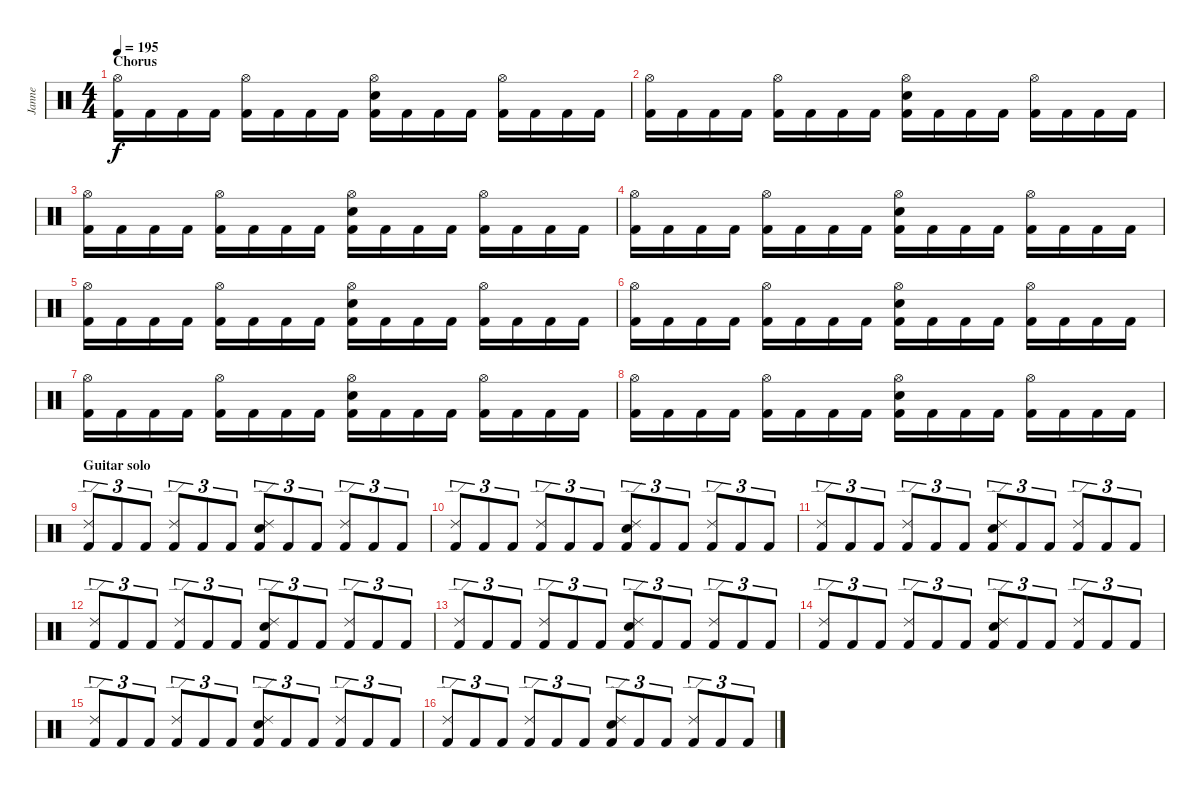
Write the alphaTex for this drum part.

\track ("Janne" "Janne") {instrument percussion}
\staff {score}
\articulation defaults
\ts (4 4)
\section ("" "Chorus")
\tempo 195
\clef neutral
\ks c
("Hi-Hat (open)" "Kick (hit) 2").16{dy f} "Kick (hit) 2".16 "Kick (hit) 2".16 "Kick (hit) 2".16 ("Hi-Hat (open)" "Kick (hit) 2").16 "Kick (hit) 2".16 "Kick (hit) 2".16 "Kick (hit) 2".16 ("Hi-Hat (open)" "Electric Snare (hit)" "Kick (hit) 2").16 "Kick (hit) 2".16 "Kick (hit) 2".16 "Kick (hit) 2".16 ("Hi-Hat (open)" "Kick (hit) 2").16 "Kick (hit) 2".16 "Kick (hit) 2".16 "Kick (hit) 2".16 |
("Hi-Hat (open)" "Kick (hit) 2").16 "Kick (hit) 2".16 "Kick (hit) 2".16 "Kick (hit) 2".16 ("Hi-Hat (open)" "Kick (hit) 2").16 "Kick (hit) 2".16 "Kick (hit) 2".16 "Kick (hit) 2".16 ("Hi-Hat (open)" "Electric Snare (hit)" "Kick (hit) 2").16 "Kick (hit) 2".16 "Kick (hit) 2".16 "Kick (hit) 2".16 ("Hi-Hat (open)" "Kick (hit) 2").16 "Kick (hit) 2".16 "Kick (hit) 2".16 "Kick (hit) 2".16 |
("Hi-Hat (open)" "Kick (hit) 2").16 "Kick (hit) 2".16 "Kick (hit) 2".16 "Kick (hit) 2".16 ("Hi-Hat (open)" "Kick (hit) 2").16 "Kick (hit) 2".16 "Kick (hit) 2".16 "Kick (hit) 2".16 ("Hi-Hat (open)" "Electric Snare (hit)" "Kick (hit) 2").16 "Kick (hit) 2".16 "Kick (hit) 2".16 "Kick (hit) 2".16 ("Hi-Hat (open)" "Kick (hit) 2").16 "Kick (hit) 2".16 "Kick (hit) 2".16 "Kick (hit) 2".16 |
("Hi-Hat (open)" "Kick (hit) 2").16 "Kick (hit) 2".16 "Kick (hit) 2".16 "Kick (hit) 2".16 ("Hi-Hat (open)" "Kick (hit) 2").16 "Kick (hit) 2".16 "Kick (hit) 2".16 "Kick (hit) 2".16 ("Hi-Hat (open)" "Electric Snare (hit)" "Kick (hit) 2").16 "Kick (hit) 2".16 "Kick (hit) 2".16 "Kick (hit) 2".16 ("Hi-Hat (open)" "Kick (hit) 2").16 "Kick (hit) 2".16 "Kick (hit) 2".16 "Kick (hit) 2".16 |
("Hi-Hat (open)" "Kick (hit) 2").16 "Kick (hit) 2".16 "Kick (hit) 2".16 "Kick (hit) 2".16 ("Hi-Hat (open)" "Kick (hit) 2").16 "Kick (hit) 2".16 "Kick (hit) 2".16 "Kick (hit) 2".16 ("Hi-Hat (open)" "Electric Snare (hit)" "Kick (hit) 2").16 "Kick (hit) 2".16 "Kick (hit) 2".16 "Kick (hit) 2".16 ("Hi-Hat (open)" "Kick (hit) 2").16 "Kick (hit) 2".16 "Kick (hit) 2".16 "Kick (hit) 2".16 |
("Hi-Hat (open)" "Kick (hit) 2").16 "Kick (hit) 2".16 "Kick (hit) 2".16 "Kick (hit) 2".16 ("Hi-Hat (open)" "Kick (hit) 2").16 "Kick (hit) 2".16 "Kick (hit) 2".16 "Kick (hit) 2".16 ("Hi-Hat (open)" "Electric Snare (hit)" "Kick (hit) 2").16 "Kick (hit) 2".16 "Kick (hit) 2".16 "Kick (hit) 2".16 ("Hi-Hat (open)" "Kick (hit) 2").16 "Kick (hit) 2".16 "Kick (hit) 2".16 "Kick (hit) 2".16 |
("Hi-Hat (open)" "Kick (hit) 2").16 "Kick (hit) 2".16 "Kick (hit) 2".16 "Kick (hit) 2".16 ("Hi-Hat (open)" "Kick (hit) 2").16 "Kick (hit) 2".16 "Kick (hit) 2".16 "Kick (hit) 2".16 ("Hi-Hat (open)" "Electric Snare (hit)" "Kick (hit) 2").16 "Kick (hit) 2".16 "Kick (hit) 2".16 "Kick (hit) 2".16 ("Hi-Hat (open)" "Kick (hit) 2").16 "Kick (hit) 2".16 "Kick (hit) 2".16 "Kick (hit) 2".16 |
("Hi-Hat (open)" "Kick (hit) 2").16 "Kick (hit) 2".16 "Kick (hit) 2".16 "Kick (hit) 2".16 ("Hi-Hat (open)" "Kick (hit) 2").16 "Kick (hit) 2".16 "Kick (hit) 2".16 "Kick (hit) 2".16 ("Hi-Hat (open)" "Electric Snare (hit)" "Kick (hit) 2").16 "Kick (hit) 2".16 "Kick (hit) 2".16 "Kick (hit) 2".16 ("Hi-Hat (open)" "Kick (hit) 2").16 "Kick (hit) 2".16 "Kick (hit) 2".16 "Kick (hit) 2".16 |
\section ("" "Guitar solo")
("Ride (edge) 2" "Kick (hit) 2").8{tu (3 2)} "Kick (hit) 2".8{tu (3 2)} "Kick (hit) 2".8{tu (3 2)} ("Ride (edge) 2" "Kick (hit) 2").8{tu (3 2)} "Kick (hit) 2".8{tu (3 2)} "Kick (hit) 2".8{tu (3 2)} ("Ride (edge) 2" "Electric Snare (hit)" "Kick (hit) 2").8{tu (3 2)} "Kick (hit) 2".8{tu (3 2)} "Kick (hit) 2".8{tu (3 2)} ("Ride (edge) 2" "Kick (hit) 2").8{tu (3 2)} "Kick (hit) 2".8{tu (3 2)} "Kick (hit) 2".8{tu (3 2)} |
("Ride (edge) 2" "Kick (hit) 2").8{tu (3 2)} "Kick (hit) 2".8{tu (3 2)} "Kick (hit) 2".8{tu (3 2)} ("Ride (edge) 2" "Kick (hit) 2").8{tu (3 2)} "Kick (hit) 2".8{tu (3 2)} "Kick (hit) 2".8{tu (3 2)} ("Ride (edge) 2" "Electric Snare (hit)" "Kick (hit) 2").8{tu (3 2)} "Kick (hit) 2".8{tu (3 2)} "Kick (hit) 2".8{tu (3 2)} ("Ride (edge) 2" "Kick (hit) 2").8{tu (3 2)} "Kick (hit) 2".8{tu (3 2)} "Kick (hit) 2".8{tu (3 2)} |
("Ride (edge) 2" "Kick (hit) 2").8{tu (3 2)} "Kick (hit) 2".8{tu (3 2)} "Kick (hit) 2".8{tu (3 2)} ("Ride (edge) 2" "Kick (hit) 2").8{tu (3 2)} "Kick (hit) 2".8{tu (3 2)} "Kick (hit) 2".8{tu (3 2)} ("Ride (edge) 2" "Electric Snare (hit)" "Kick (hit) 2").8{tu (3 2)} "Kick (hit) 2".8{tu (3 2)} "Kick (hit) 2".8{tu (3 2)} ("Ride (edge) 2" "Kick (hit) 2").8{tu (3 2)} "Kick (hit) 2".8{tu (3 2)} "Kick (hit) 2".8{tu (3 2)} |
("Ride (edge) 2" "Kick (hit) 2").8{tu (3 2)} "Kick (hit) 2".8{tu (3 2)} "Kick (hit) 2".8{tu (3 2)} ("Ride (edge) 2" "Kick (hit) 2").8{tu (3 2)} "Kick (hit) 2".8{tu (3 2)} "Kick (hit) 2".8{tu (3 2)} ("Ride (edge) 2" "Electric Snare (hit)" "Kick (hit) 2").8{tu (3 2)} "Kick (hit) 2".8{tu (3 2)} "Kick (hit) 2".8{tu (3 2)} ("Ride (edge) 2" "Kick (hit) 2").8{tu (3 2)} "Kick (hit) 2".8{tu (3 2)} "Kick (hit) 2".8{tu (3 2)} |
("Ride (edge) 2" "Kick (hit) 2").8{tu (3 2)} "Kick (hit) 2".8{tu (3 2)} "Kick (hit) 2".8{tu (3 2)} ("Ride (edge) 2" "Kick (hit) 2").8{tu (3 2)} "Kick (hit) 2".8{tu (3 2)} "Kick (hit) 2".8{tu (3 2)} ("Ride (edge) 2" "Electric Snare (hit)" "Kick (hit) 2").8{tu (3 2)} "Kick (hit) 2".8{tu (3 2)} "Kick (hit) 2".8{tu (3 2)} ("Ride (edge) 2" "Kick (hit) 2").8{tu (3 2)} "Kick (hit) 2".8{tu (3 2)} "Kick (hit) 2".8{tu (3 2)} |
("Ride (edge) 2" "Kick (hit) 2").8{tu (3 2)} "Kick (hit) 2".8{tu (3 2)} "Kick (hit) 2".8{tu (3 2)} ("Ride (edge) 2" "Kick (hit) 2").8{tu (3 2)} "Kick (hit) 2".8{tu (3 2)} "Kick (hit) 2".8{tu (3 2)} ("Ride (edge) 2" "Electric Snare (hit)" "Kick (hit) 2").8{tu (3 2)} "Kick (hit) 2".8{tu (3 2)} "Kick (hit) 2".8{tu (3 2)} ("Ride (edge) 2" "Kick (hit) 2").8{tu (3 2)} "Kick (hit) 2".8{tu (3 2)} "Kick (hit) 2".8{tu (3 2)} |
("Ride (edge) 2" "Kick (hit) 2").8{tu (3 2)} "Kick (hit) 2".8{tu (3 2)} "Kick (hit) 2".8{tu (3 2)} ("Ride (edge) 2" "Kick (hit) 2").8{tu (3 2)} "Kick (hit) 2".8{tu (3 2)} "Kick (hit) 2".8{tu (3 2)} ("Ride (edge) 2" "Electric Snare (hit)" "Kick (hit) 2").8{tu (3 2)} "Kick (hit) 2".8{tu (3 2)} "Kick (hit) 2".8{tu (3 2)} ("Ride (edge) 2" "Kick (hit) 2").8{tu (3 2)} "Kick (hit) 2".8{tu (3 2)} "Kick (hit) 2".8{tu (3 2)} |
("Ride (edge) 2" "Kick (hit) 2").8{tu (3 2)} "Kick (hit) 2".8{tu (3 2)} "Kick (hit) 2".8{tu (3 2)} ("Ride (edge) 2" "Kick (hit) 2").8{tu (3 2)} "Kick (hit) 2".8{tu (3 2)} "Kick (hit) 2".8{tu (3 2)} ("Ride (edge) 2" "Electric Snare (hit)" "Kick (hit) 2").8{tu (3 2)} "Kick (hit) 2".8{tu (3 2)} "Kick (hit) 2".8{tu (3 2)} ("Ride (edge) 2" "Kick (hit) 2").8{tu (3 2)} "Kick (hit) 2".8{tu (3 2)} "Kick (hit) 2".8{tu (3 2)}
